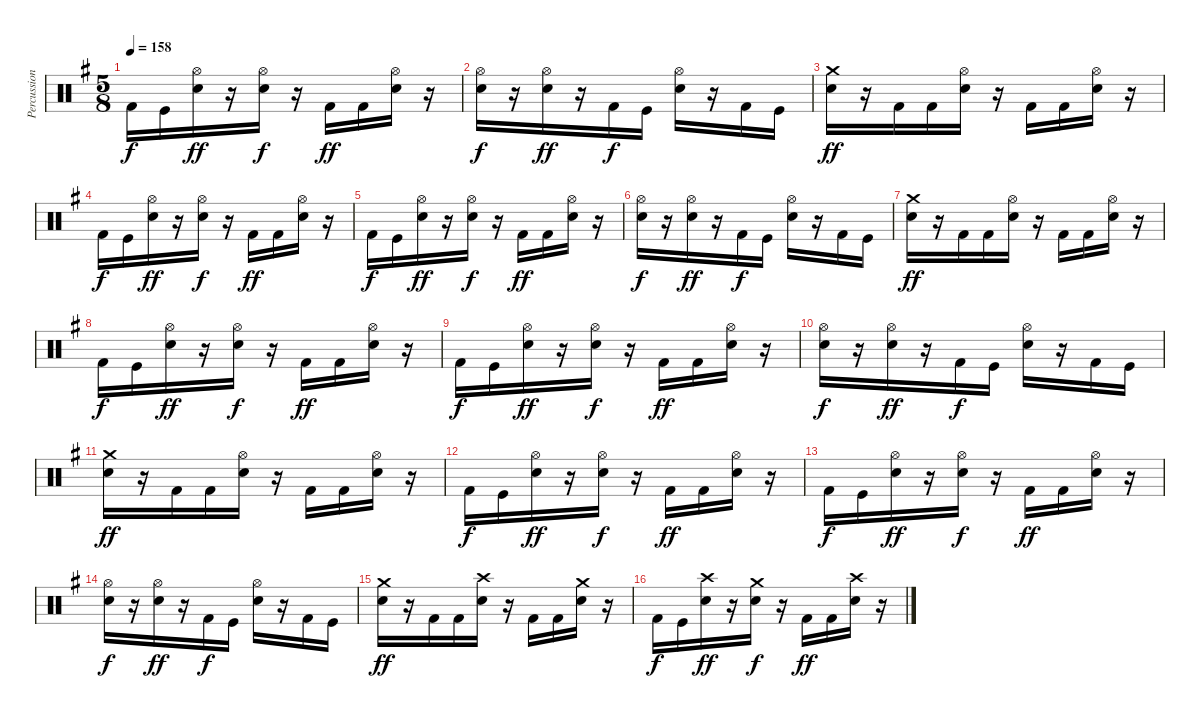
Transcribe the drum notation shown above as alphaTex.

\track ("Percussion" "Percussion") {instrument percussion}
\staff {score}
\articulation defaults
\ts (5 8)
\tempo 158
\clef neutral
\ks g "Kick (hit) 2".16{dy f} "Kick (hit)".16
("Hi-Hat (open)" "Electric Snare (hit)").16{dy ff} r.16 ("Hi-Hat (open)" "Electric Snare (hit)").16{dy f} r.16 "Kick (hit) 2".16{dy ff} "Kick (hit) 2".16 ("Hi-Hat (open)" "Electric Snare (hit)").16 r.16 |
("Hi-Hat (open)" "Electric Snare (hit)").16{dy f} r.16 ("Hi-Hat (open)" "Electric Snare (hit)").16{dy ff} r.16 "Kick (hit) 2".16{dy f} "Kick (hit)".16 ("Hi-Hat (open)" "Electric Snare (hit)").16 r.16 "Kick (hit) 2".16 "Kick (hit)".16 |
("Crash medium (hit)" "Electric Snare (hit)").16{dy ff} r.16 "Kick (hit) 2".16 "Kick (hit) 2".16 ("Hi-Hat (open)" "Electric Snare (hit)").16 r.16 "Kick (hit) 2".16 "Kick (hit) 2".16 ("Hi-Hat (open)" "Electric Snare (hit)").16 r.16 |
"Kick (hit) 2".16{dy f} "Kick (hit)".16 ("Hi-Hat (open)" "Electric Snare (hit)").16{dy ff} r.16 ("Hi-Hat (open)" "Electric Snare (hit)").16{dy f} r.16 "Kick (hit) 2".16{dy ff} "Kick (hit) 2".16 ("Hi-Hat (open)" "Electric Snare (hit)").16 r.16 |
"Kick (hit) 2".16{dy f} "Kick (hit)".16 ("Hi-Hat (open)" "Electric Snare (hit)").16{dy ff} r.16 ("Hi-Hat (open)" "Electric Snare (hit)").16{dy f} r.16 "Kick (hit) 2".16{dy ff} "Kick (hit) 2".16 ("Hi-Hat (open)" "Electric Snare (hit)").16 r.16 |
("Hi-Hat (open)" "Electric Snare (hit)").16{dy f} r.16 ("Hi-Hat (open)" "Electric Snare (hit)").16{dy ff} r.16 "Kick (hit) 2".16{dy f} "Kick (hit)".16 ("Hi-Hat (open)" "Electric Snare (hit)").16 r.16 "Kick (hit) 2".16 "Kick (hit)".16 |
("Crash medium (hit)" "Electric Snare (hit)").16{dy ff} r.16 "Kick (hit) 2".16 "Kick (hit) 2".16 ("Hi-Hat (open)" "Electric Snare (hit)").16 r.16 "Kick (hit) 2".16 "Kick (hit) 2".16 ("Hi-Hat (open)" "Electric Snare (hit)").16 r.16 |
"Kick (hit) 2".16{dy f} "Kick (hit)".16 ("Hi-Hat (open)" "Electric Snare (hit)").16{dy ff} r.16 ("Hi-Hat (open)" "Electric Snare (hit)").16{dy f} r.16 "Kick (hit) 2".16{dy ff} "Kick (hit) 2".16 ("Hi-Hat (open)" "Electric Snare (hit)").16 r.16 |
"Kick (hit) 2".16{dy f} "Kick (hit)".16 ("Hi-Hat (open)" "Electric Snare (hit)").16{dy ff} r.16 ("Hi-Hat (open)" "Electric Snare (hit)").16{dy f} r.16 "Kick (hit) 2".16{dy ff} "Kick (hit) 2".16 ("Hi-Hat (open)" "Electric Snare (hit)").16 r.16 |
("Hi-Hat (open)" "Electric Snare (hit)").16{dy f} r.16 ("Hi-Hat (open)" "Electric Snare (hit)").16{dy ff} r.16 "Kick (hit) 2".16{dy f} "Kick (hit)".16 ("Hi-Hat (open)" "Electric Snare (hit)").16 r.16 "Kick (hit) 2".16 "Kick (hit)".16 |
("Crash medium (hit)" "Electric Snare (hit)").16{dy ff} r.16 "Kick (hit) 2".16 "Kick (hit) 2".16 ("Hi-Hat (open)" "Electric Snare (hit)").16 r.16 "Kick (hit) 2".16 "Kick (hit) 2".16 ("Hi-Hat (open)" "Electric Snare (hit)").16 r.16 |
"Kick (hit) 2".16{dy f} "Kick (hit)".16 ("Hi-Hat (open)" "Electric Snare (hit)").16{dy ff} r.16 ("Hi-Hat (open)" "Electric Snare (hit)").16{dy f} r.16 "Kick (hit) 2".16{dy ff} "Kick (hit) 2".16 ("Hi-Hat (open)" "Electric Snare (hit)").16 r.16 |
"Kick (hit) 2".16{dy f} "Kick (hit)".16 ("Hi-Hat (open)" "Electric Snare (hit)").16{dy ff} r.16 ("Hi-Hat (open)" "Electric Snare (hit)").16{dy f} r.16 "Kick (hit) 2".16{dy ff} "Kick (hit) 2".16 ("Hi-Hat (open)" "Electric Snare (hit)").16 r.16 |
("Hi-Hat (open)" "Electric Snare (hit)").16{dy f} r.16 ("Hi-Hat (open)" "Electric Snare (hit)").16{dy ff} r.16 "Kick (hit) 2".16{dy f} "Kick (hit)".16 ("Hi-Hat (open)" "Electric Snare (hit)").16 r.16 "Kick (hit) 2".16 "Kick (hit)".16 |
("Crash medium (hit)" "Electric Snare (hit)").16{dy ff} r.16 "Kick (hit) 2".16 "Kick (hit) 2".16 ("Crash high (hit)" "Electric Snare (hit)").16 r.16 "Kick (hit) 2".16 "Kick (hit) 2".16 ("Crash medium (hit)" "Electric Snare (hit)").16 r.16 |
"Kick (hit) 2".16{dy f} "Kick (hit)".16 ("Crash high (hit)" "Electric Snare (hit)").16{dy ff} r.16 ("Crash medium (hit)" "Electric Snare (hit)").16{dy f} r.16 "Kick (hit) 2".16{dy ff} "Kick (hit) 2".16 ("Crash high (hit)" "Electric Snare (hit)").16 r.16
